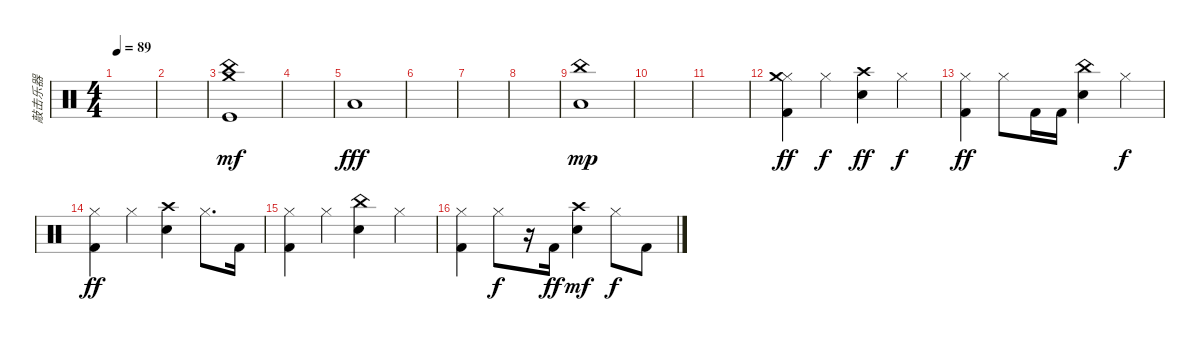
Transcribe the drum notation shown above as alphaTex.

\track ("敲击乐器" "敲击乐器") {instrument percussion}
\staff {score}
\articulation defaults
\ts (4 4)
\tempo 89
\clef neutral
\ks c
|
|
("Crash medium (hit)" "China (hit)" "Kick (hit)").1{dy mf} |
|
"Low Floor Tom (hit)".1{dy fff} |
|
|
|
("China (hit)" "Low Floor Tom (hit)").1{dy mp} |
|
|
("Hi-Hat (closed)" "Crash medium (hit)" "Kick (hit) 2").4{dy ff} "Hi-Hat (closed)".4{dy f} ("Crash high (hit)" "Electric Snare (hit)").4{dy ff} "Hi-Hat (closed)".4{dy f} |
("Hi-Hat (closed)" "Kick (hit) 2").4{dy ff} "Hi-Hat (closed)".8 "Kick (hit) 2".16 "Kick (hit) 2".16 ("China (hit)" "Electric Snare (hit)").4 "Hi-Hat (closed)".4{dy f} |
("Hi-Hat (closed)" "Kick (hit) 2").4{dy ff} "Hi-Hat (closed)".4 ("Crash high (hit)" "Electric Snare (hit)").4 "Hi-Hat (closed)".8{d} "Kick (hit) 2".16 |
("Hi-Hat (closed)" "Kick (hit) 2").4 "Hi-Hat (closed)".4 ("China (hit)" "Electric Snare (hit)").4 "Hi-Hat (closed)".4 |
("Hi-Hat (closed)" "Kick (hit) 2").4 "Hi-Hat (closed)".8{dy f} r.16 "Kick (hit) 2".16{dy ff} ("Electric Snare (hit)" "Crash high (hit)").4{dy mf} "Hi-Hat (closed)".8{dy f} "Kick (hit) 2".8
